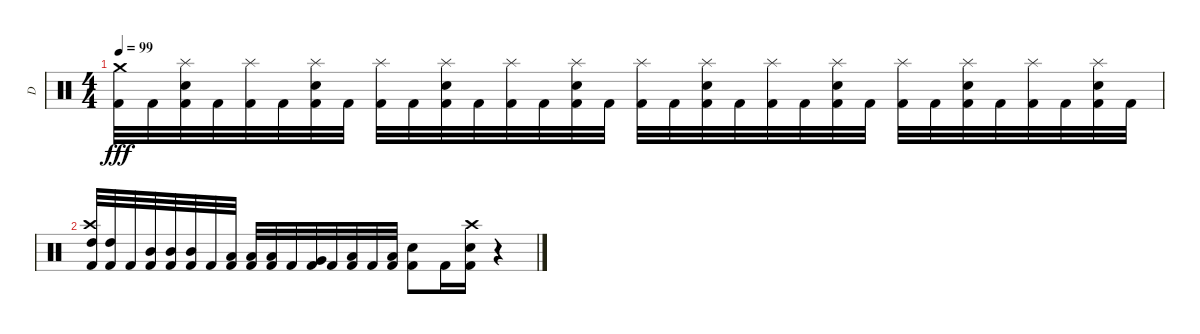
\track ("D" "D") {instrument percussion}
\staff {score}
\articulation defaults
\ts (4 4)
\tempo 99
\clef neutral
\ks c
("Crash medium (hit)" "Kick (hit) 2").32{dy fff} "Kick (hit) 2".32 ("Splash (hit)" "Snare (hit) 2" "Kick (hit) 2").32 "Kick (hit) 2".32 ("Splash (hit)" "Kick (hit) 2").32 "Kick (hit) 2".32 ("Splash (hit)" "Snare (hit) 2" "Kick (hit) 2").32 "Kick (hit) 2".32 ("Splash (hit)" "Kick (hit) 2").32 "Kick (hit) 2".32 ("Splash (hit)" "Snare (hit) 2" "Kick (hit) 2").32 "Kick (hit) 2".32 ("Splash (hit)" "Kick (hit) 2").32 "Kick (hit) 2".32 ("Splash (hit)" "Snare (hit) 2" "Kick (hit) 2").32 "Kick (hit) 2".32 ("Splash (hit)" "Kick (hit) 2").32 "Kick (hit) 2".32 ("Splash (hit)" "Snare (hit) 2" "Kick (hit) 2").32 "Kick (hit) 2".32 ("Splash (hit)" "Kick (hit) 2").32 "Kick (hit) 2".32 ("Splash (hit)" "Snare (hit) 2" "Kick (hit) 2").32 "Kick (hit) 2".32 ("Splash (hit)" "Kick (hit) 2").32 "Kick (hit) 2".32 ("Splash (hit)" "Snare (hit) 2" "Kick (hit) 2").32 "Kick (hit) 2".32 ("Splash (hit)" "Kick (hit) 2").32 "Kick (hit) 2".32 ("Splash (hit)" "Snare (hit) 2" "Kick (hit) 2").32 "Kick (hit) 2".32 |
("Crash high (hit)" "High Tom (hit)" "Kick (hit) 2").32 ("High Tom (hit)" "Kick (hit) 2").32 "Kick (hit) 2".32 ("Mid Tom (hit)" "Kick (hit) 2").32 ("Mid Tom (hit)" "Kick (hit) 2").32 ("Mid Tom (hit)" "Kick (hit) 2").32 "Kick (hit) 2".32 ("Low Tom (hit)" "Kick (hit) 2").32 ("Low Tom (hit)" "Kick (hit) 2").32 ("Low Tom (hit)" "Kick (hit) 2").32 "Kick (hit) 2".32 ("Very Low Tom (hit)" "Kick (hit) 2").32 "Kick (hit) 2".32 ("Low Floor Tom (hit)" "Kick (hit) 2").32 "Kick (hit) 2".32 ("Low Floor Tom (hit)" "Kick (hit) 2").32 ("Snare (hit) 2" "Kick (hit) 2").8 "Kick (hit) 2".16 ("Crash high (hit)" "Snare (hit) 2" "Kick (hit) 2").16 r.4
